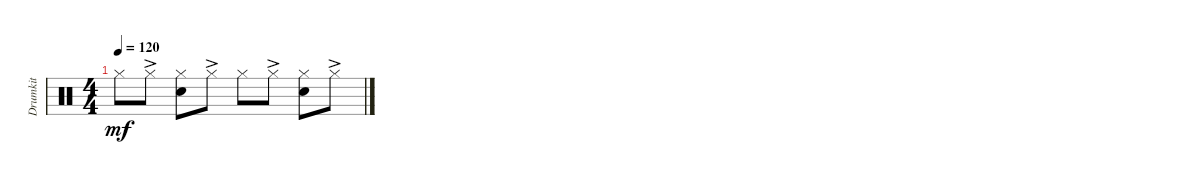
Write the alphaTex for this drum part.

\track ("Drumkit" "Drumkit") {instrument percussion}
\staff {score}
\articulation defaults
\ts (4 4)
\tempo 120
\clef neutral
\ks c "Hi-Hat (closed)".8{dy mf} "Hi-Hat (closed)"{ac}.8
("Hi-Hat (closed)" "Snare (hit) 2").8 "Hi-Hat (closed)"{ac}.8 "Hi-Hat (closed)".8 "Hi-Hat (closed)"{ac}.8 ("Hi-Hat (closed)" "Snare (hit) 2").8 "Hi-Hat (closed)"{ac}.8
